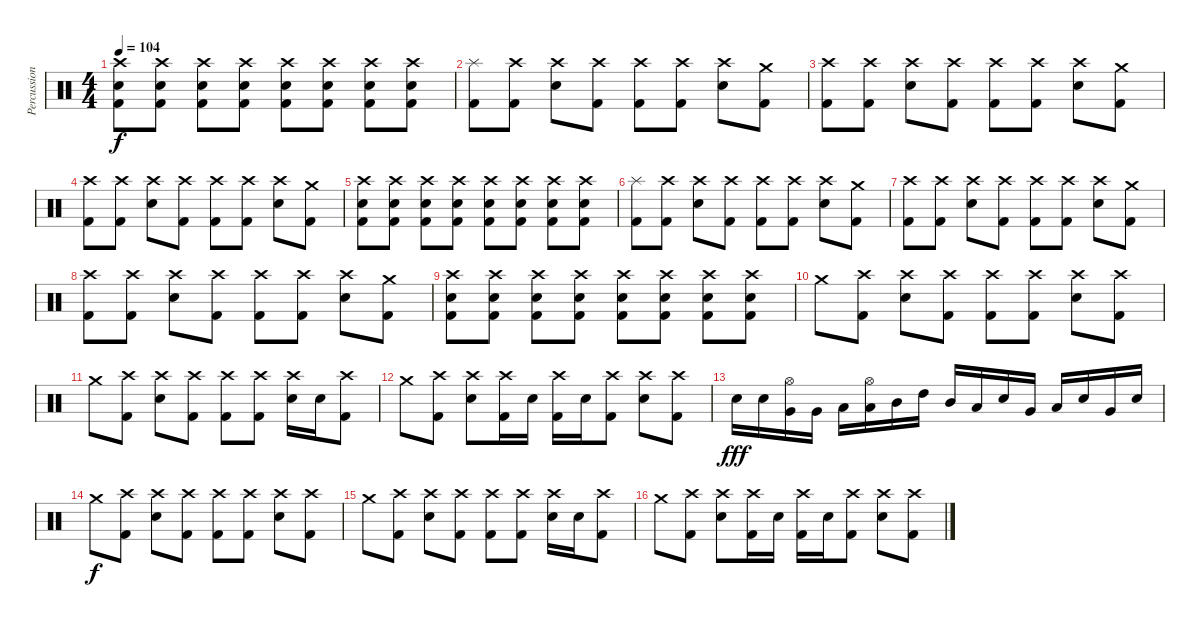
\track ("Percussion" "Percussion") {instrument percussion}
\staff {score}
\articulation defaults
\ts (4 4)
\tempo 104
\clef neutral
\ks c
("Crash high (hit)" "Electric Snare (hit)" "Kick (hit) 2").8{dy f} ("Crash high (hit)" "Electric Snare (hit)" "Kick (hit) 2").8 ("Crash high (hit)" "Electric Snare (hit)" "Kick (hit) 2").8 ("Crash high (hit)" "Electric Snare (hit)" "Kick (hit) 2").8 ("Crash high (hit)" "Electric Snare (hit)" "Kick (hit) 2").8 ("Crash high (hit)" "Electric Snare (hit)" "Kick (hit) 2").8 ("Crash high (hit)" "Electric Snare (hit)" "Kick (hit) 2").8 ("Crash high (hit)" "Electric Snare (hit)" "Kick (hit) 2").8 |
("Splash (hit)" "Kick (hit) 2").8 ("Crash high (hit)" "Kick (hit) 2").8 ("Crash high (hit)" "Electric Snare (hit)").8 ("Crash high (hit)" "Kick (hit) 2").8 ("Crash high (hit)" "Kick (hit) 2").8 ("Crash high (hit)" "Kick (hit) 2").8 ("Crash high (hit)" "Electric Snare (hit)").8 ("Crash medium (hit)" "Kick (hit) 2").8 |
("Crash high (hit)" "Kick (hit) 2").8 ("Crash high (hit)" "Kick (hit) 2").8 ("Crash high (hit)" "Electric Snare (hit)").8 ("Crash high (hit)" "Kick (hit) 2").8 ("Crash high (hit)" "Kick (hit) 2").8 ("Crash high (hit)" "Kick (hit) 2").8 ("Crash high (hit)" "Electric Snare (hit)").8 ("Crash medium (hit)" "Kick (hit) 2").8 |
("Crash high (hit)" "Kick (hit) 2").8 ("Crash high (hit)" "Kick (hit) 2").8 ("Crash high (hit)" "Electric Snare (hit)").8 ("Crash high (hit)" "Kick (hit) 2").8 ("Crash high (hit)" "Kick (hit) 2").8 ("Crash high (hit)" "Kick (hit) 2").8 ("Crash high (hit)" "Electric Snare (hit)").8 ("Crash medium (hit)" "Kick (hit) 2").8 |
("Crash high (hit)" "Electric Snare (hit)" "Kick (hit) 2").8 ("Crash high (hit)" "Electric Snare (hit)" "Kick (hit) 2").8 ("Crash high (hit)" "Electric Snare (hit)" "Kick (hit) 2").8 ("Crash high (hit)" "Electric Snare (hit)" "Kick (hit) 2").8 ("Crash high (hit)" "Electric Snare (hit)" "Kick (hit) 2").8 ("Crash high (hit)" "Electric Snare (hit)" "Kick (hit) 2").8 ("Crash high (hit)" "Electric Snare (hit)" "Kick (hit) 2").8 ("Crash high (hit)" "Electric Snare (hit)" "Kick (hit) 2").8 |
("Splash (hit)" "Kick (hit) 2").8 ("Crash high (hit)" "Kick (hit) 2").8 ("Crash high (hit)" "Electric Snare (hit)").8 ("Crash high (hit)" "Kick (hit) 2").8 ("Crash high (hit)" "Kick (hit) 2").8 ("Crash high (hit)" "Kick (hit) 2").8 ("Crash high (hit)" "Electric Snare (hit)").8 ("Crash medium (hit)" "Kick (hit) 2").8 |
("Crash high (hit)" "Kick (hit) 2").8 ("Crash high (hit)" "Kick (hit) 2").8 ("Crash high (hit)" "Electric Snare (hit)").8 ("Crash high (hit)" "Kick (hit) 2").8 ("Crash high (hit)" "Kick (hit) 2").8 ("Crash high (hit)" "Kick (hit) 2").8 ("Crash high (hit)" "Electric Snare (hit)").8 ("Crash medium (hit)" "Kick (hit) 2").8 |
("Crash high (hit)" "Kick (hit) 2").8 ("Crash high (hit)" "Kick (hit) 2").8 ("Crash high (hit)" "Electric Snare (hit)").8 ("Crash high (hit)" "Kick (hit) 2").8 ("Crash high (hit)" "Kick (hit) 2").8 ("Crash high (hit)" "Kick (hit) 2").8 ("Crash high (hit)" "Electric Snare (hit)").8 ("Crash medium (hit)" "Kick (hit) 2").8 |
("Crash high (hit)" "Electric Snare (hit)" "Kick (hit) 2").8 ("Crash high (hit)" "Electric Snare (hit)" "Kick (hit) 2").8 ("Crash high (hit)" "Electric Snare (hit)" "Kick (hit) 2").8 ("Crash high (hit)" "Electric Snare (hit)" "Kick (hit) 2").8 ("Crash high (hit)" "Electric Snare (hit)" "Kick (hit) 2").8 ("Crash high (hit)" "Electric Snare (hit)" "Kick (hit) 2").8 ("Crash high (hit)" "Electric Snare (hit)" "Kick (hit) 2").8 ("Crash high (hit)" "Electric Snare (hit)" "Kick (hit) 2").8 |
"Crash medium (hit)".8 ("Crash high (hit)" "Kick (hit) 2").8 ("Crash high (hit)" "Electric Snare (hit)").8 ("Crash high (hit)" "Kick (hit) 2").8 ("Crash high (hit)" "Kick (hit) 2").8 ("Crash high (hit)" "Kick (hit) 2").8 ("Crash high (hit)" "Electric Snare (hit)").8 ("Crash high (hit)" "Kick (hit) 2").8 |
"Crash medium (hit)".8 ("Crash high (hit)" "Kick (hit) 2").8 ("Crash high (hit)" "Electric Snare (hit)").8 ("Crash high (hit)" "Kick (hit) 2").8 ("Crash high (hit)" "Kick (hit) 2").8 ("Crash high (hit)" "Kick (hit) 2").8 ("Crash high (hit)" "Electric Snare (hit)").16 "Electric Snare (hit)".16 ("Crash high (hit)" "Kick (hit) 2").8 |
"Crash medium (hit)".8 ("Crash high (hit)" "Kick (hit) 2").8 ("Crash high (hit)" "Electric Snare (hit)").8 ("Crash high (hit)" "Kick (hit) 2").16 "Electric Snare (hit)".16 ("Crash high (hit)" "Kick (hit) 2").16 "Electric Snare (hit)".16 ("Crash high (hit)" "Kick (hit) 2").8 ("Crash high (hit)" "Electric Snare (hit)").8 ("Crash high (hit)" "Kick (hit) 2").8 |
"Electric Snare (hit)".16{dy fff} "Electric Snare (hit)".16 ("Hi-Hat (open)" "Very Low Tom (hit)").16 "Very Low Tom (hit)".16 "Low Tom (hit)".16 ("Hi-Hat (open)" "Low Tom (hit)").16 "Mid Tom (hit)".16 "High Tom (hit)".16 "Mid Tom (hit)".16 "Low Tom (hit)".16 "Electric Snare (hit)".16 "Very Low Tom (hit)".16 "Low Tom (hit)".16 "Electric Snare (hit)".16 "Very Low Tom (hit)".16 "Electric Snare (hit)".16 |
"Crash medium (hit)".8{dy f} ("Crash high (hit)" "Kick (hit) 2").8 ("Crash high (hit)" "Electric Snare (hit)").8 ("Crash high (hit)" "Kick (hit) 2").8 ("Crash high (hit)" "Kick (hit) 2").8 ("Crash high (hit)" "Kick (hit) 2").8 ("Crash high (hit)" "Electric Snare (hit)").8 ("Crash high (hit)" "Kick (hit) 2").8 |
"Crash medium (hit)".8 ("Crash high (hit)" "Kick (hit) 2").8 ("Crash high (hit)" "Electric Snare (hit)").8 ("Crash high (hit)" "Kick (hit) 2").8 ("Crash high (hit)" "Kick (hit) 2").8 ("Crash high (hit)" "Kick (hit) 2").8 ("Crash high (hit)" "Electric Snare (hit)").16 "Electric Snare (hit)".16 ("Crash high (hit)" "Kick (hit) 2").8 |
"Crash medium (hit)".8 ("Crash high (hit)" "Kick (hit) 2").8 ("Crash high (hit)" "Electric Snare (hit)").8 ("Crash high (hit)" "Kick (hit) 2").16 "Electric Snare (hit)".16 ("Crash high (hit)" "Kick (hit) 2").16 "Electric Snare (hit)".16 ("Crash high (hit)" "Kick (hit) 2").8 ("Crash high (hit)" "Electric Snare (hit)").8 ("Crash high (hit)" "Kick (hit) 2").8
